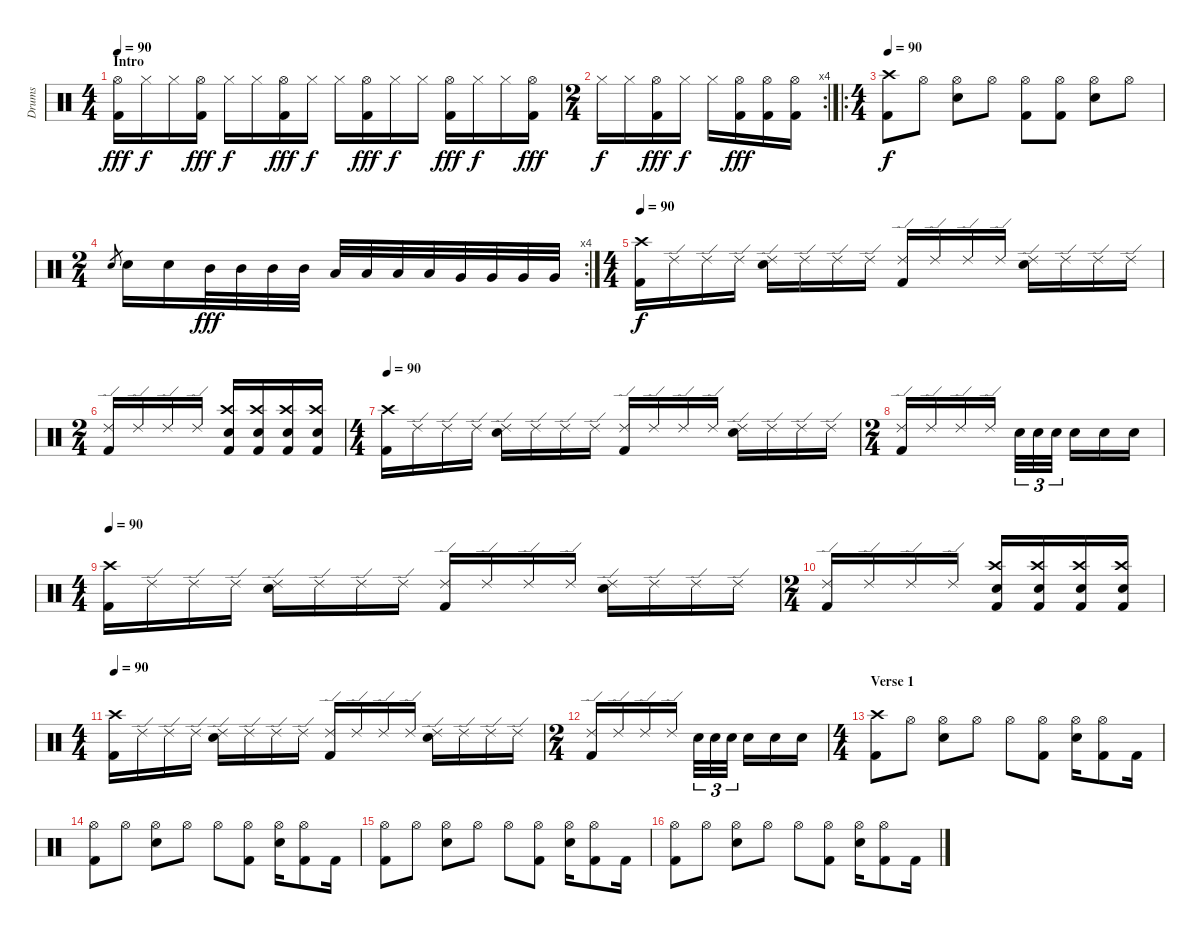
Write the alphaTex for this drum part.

\track ("Drums" "Drums") {instrument percussion}
\staff {score}
\articulation defaults
\ts (4 4)
\section ("" "Intro")
\tempo 90
\clef neutral
\ks c
("Kick (hit) 2" "Hi-Hat (open)").16{dy fff} "Hi-Hat (closed)".16{dy f} "Hi-Hat (closed)".16 ("Kick (hit) 2" "Hi-Hat (open)").16{dy fff} "Hi-Hat (closed)".16{dy f} "Hi-Hat (closed)".16 ("Kick (hit) 2" "Hi-Hat (open)").16{dy fff} "Hi-Hat (closed)".16{dy f} "Hi-Hat (closed)".16 ("Kick (hit) 2" "Hi-Hat (open)").16{dy fff} "Hi-Hat (closed)".16{dy f} "Hi-Hat (closed)".16 ("Kick (hit) 2" "Hi-Hat (open)").16{dy fff} "Hi-Hat (closed)".16{dy f} "Hi-Hat (closed)".16 ("Kick (hit) 2" "Hi-Hat (open)").16{dy fff} |
\rc 4
\ts (2 4)
"Hi-Hat (closed)".16{dy f} "Hi-Hat (closed)".16 ("Kick (hit) 2" "Hi-Hat (open)").16{dy fff} "Hi-Hat (closed)".16{dy f} "Hi-Hat (closed)".16 ("Kick (hit) 2" "Hi-Hat (open)").16{dy fff} ("Kick (hit) 2" "Hi-Hat (open)").16 ("Kick (hit) 2" "Hi-Hat (open)").16 |
\ro
\ts (4 4)
\tempo 90
("Crash high (hit)" "Kick (hit) 2").8{dy f} "Hi-Hat (open)".8 ("Hi-Hat (open)" "Electric Snare (hit)").8 "Hi-Hat (open)".8 ("Hi-Hat (open)" "Kick (hit) 2").8 ("Hi-Hat (open)" "Kick (hit) 2").8 ("Hi-Hat (open)" "Electric Snare (hit)").8 "Hi-Hat (open)".8 |
\rc 4
\ts (2 4)
"Electric Snare (hit)".8{gr} "Electric Snare (hit)".16 "Electric Snare (hit)".16 "Mid Tom (hit)".32{dy fff} "Mid Tom (hit)".32 "Mid Tom (hit)".32 "Mid Tom (hit)".32 "Low Tom (hit)".32 "Low Tom (hit)".32 "Low Tom (hit)".32 "Low Tom (hit)".32 "Very Low Tom (hit)".32 "Very Low Tom (hit)".32 "Very Low Tom (hit)".32 "Very Low Tom (hit)".32 |
\ts (4 4)
\tempo 90
("Crash high (hit)" "Kick (hit) 2").16{dy f} "Ride (edge) 2".16 "Ride (edge) 2".16 "Ride (edge) 2".16 ("Ride (edge) 2" "Electric Snare (hit)").16 "Ride (edge) 2".16 "Ride (edge) 2".16 "Ride (edge) 2".16 ("Ride (edge) 2" "Kick (hit) 2").16 "Ride (edge) 2".16 "Ride (edge) 2".16 "Ride (edge) 2".16 ("Ride (edge) 2" "Electric Snare (hit)").16 "Ride (edge) 2".16 "Ride (edge) 2".16 "Ride (edge) 2".16 |
\ts (2 4)
("Ride (edge) 2" "Kick (hit) 2").16 "Ride (edge) 2".16 "Ride (edge) 2".16 "Ride (edge) 2".16 ("Crash high (hit)" "Electric Snare (hit)" "Kick (hit) 2").16 ("Crash high (hit)" "Electric Snare (hit)" "Kick (hit) 2").16 ("Crash high (hit)" "Electric Snare (hit)" "Kick (hit) 2").16 ("Crash high (hit)" "Electric Snare (hit)" "Kick (hit) 2").16 |
\ts (4 4)
\tempo 90
("Crash high (hit)" "Kick (hit) 2").16 "Ride (edge) 2".16 "Ride (edge) 2".16 "Ride (edge) 2".16 ("Ride (edge) 2" "Electric Snare (hit)").16 "Ride (edge) 2".16 "Ride (edge) 2".16 "Ride (edge) 2".16 ("Ride (edge) 2" "Kick (hit) 2").16 "Ride (edge) 2".16 "Ride (edge) 2".16 "Ride (edge) 2".16 ("Ride (edge) 2" "Electric Snare (hit)").16 "Ride (edge) 2".16 "Ride (edge) 2".16 "Ride (edge) 2".16 |
\ts (2 4)
("Ride (edge) 2" "Kick (hit) 2").16 "Ride (edge) 2".16 "Ride (edge) 2".16 "Ride (edge) 2".16 "Electric Snare (hit)".32{tu (3 2)} "Electric Snare (hit)".32{tu (3 2)} "Electric Snare (hit)".32{tu (3 2)} "Electric Snare (hit)".16 "Electric Snare (hit)".16 "Electric Snare (hit)".16 |
\ts (4 4)
\tempo 90
("Crash high (hit)" "Kick (hit) 2").16 "Ride (edge) 2".16 "Ride (edge) 2".16 "Ride (edge) 2".16 ("Ride (edge) 2" "Electric Snare (hit)").16 "Ride (edge) 2".16 "Ride (edge) 2".16 "Ride (edge) 2".16 ("Ride (edge) 2" "Kick (hit) 2").16 "Ride (edge) 2".16 "Ride (edge) 2".16 "Ride (edge) 2".16 ("Ride (edge) 2" "Electric Snare (hit)").16 "Ride (edge) 2".16 "Ride (edge) 2".16 "Ride (edge) 2".16 |
\ts (2 4)
("Ride (edge) 2" "Kick (hit) 2").16 "Ride (edge) 2".16 "Ride (edge) 2".16 "Ride (edge) 2".16 ("Crash high (hit)" "Electric Snare (hit)" "Kick (hit) 2").16 ("Crash high (hit)" "Electric Snare (hit)" "Kick (hit) 2").16 ("Crash high (hit)" "Electric Snare (hit)" "Kick (hit) 2").16 ("Crash high (hit)" "Electric Snare (hit)" "Kick (hit) 2").16 |
\ts (4 4)
\tempo 90
("Crash high (hit)" "Kick (hit) 2").16 "Ride (edge) 2".16 "Ride (edge) 2".16 "Ride (edge) 2".16 ("Ride (edge) 2" "Electric Snare (hit)").16 "Ride (edge) 2".16 "Ride (edge) 2".16 "Ride (edge) 2".16 ("Ride (edge) 2" "Kick (hit) 2").16 "Ride (edge) 2".16 "Ride (edge) 2".16 "Ride (edge) 2".16 ("Ride (edge) 2" "Electric Snare (hit)").16 "Ride (edge) 2".16 "Ride (edge) 2".16 "Ride (edge) 2".16 |
\ts (2 4)
("Ride (edge) 2" "Kick (hit) 2").16 "Ride (edge) 2".16 "Ride (edge) 2".16 "Ride (edge) 2".16 "Electric Snare (hit)".32{tu (3 2)} "Electric Snare (hit)".32{tu (3 2)} "Electric Snare (hit)".32{tu (3 2)} "Electric Snare (hit)".16 "Electric Snare (hit)".16 "Electric Snare (hit)".16 |
\ts (4 4)
\section ("" "Verse 1")
("Crash high (hit)" "Kick (hit) 2").8 "Hi-Hat (open)".8 ("Hi-Hat (open)" "Electric Snare (hit)").8 "Hi-Hat (open)".8 "Hi-Hat (open)".8 ("Hi-Hat (open)" "Kick (hit) 2").8 ("Hi-Hat (open)" "Electric Snare (hit)").16 ("Hi-Hat (open)" "Kick (hit) 2").8 "Kick (hit) 2".16 |
("Hi-Hat (open)" "Kick (hit) 2").8 "Hi-Hat (open)".8 ("Hi-Hat (open)" "Electric Snare (hit)").8 "Hi-Hat (open)".8 "Hi-Hat (open)".8 ("Hi-Hat (open)" "Kick (hit) 2").8 ("Hi-Hat (open)" "Electric Snare (hit)").16 ("Hi-Hat (open)" "Kick (hit) 2").8 "Kick (hit) 2".16 |
("Hi-Hat (open)" "Kick (hit) 2").8 "Hi-Hat (open)".8 ("Hi-Hat (open)" "Electric Snare (hit)").8 "Hi-Hat (open)".8 "Hi-Hat (open)".8 ("Hi-Hat (open)" "Kick (hit) 2").8 ("Hi-Hat (open)" "Electric Snare (hit)").16 ("Hi-Hat (open)" "Kick (hit) 2").8 "Kick (hit) 2".16 |
("Hi-Hat (open)" "Kick (hit) 2").8 "Hi-Hat (open)".8 ("Hi-Hat (open)" "Electric Snare (hit)").8 "Hi-Hat (open)".8 "Hi-Hat (open)".8 ("Hi-Hat (open)" "Kick (hit) 2").8 ("Hi-Hat (open)" "Electric Snare (hit)").16 ("Hi-Hat (open)" "Kick (hit) 2").8 "Kick (hit) 2".16
